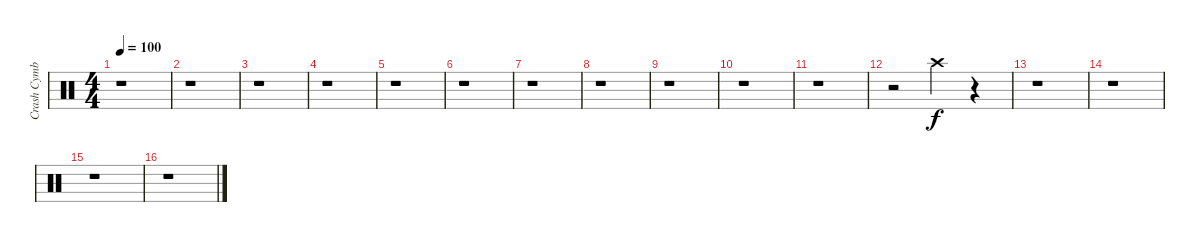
\track ("Crash Cymbal" "Crash Cymb") {instrument percussion}
\staff {score}
\articulation defaults
\ts (4 4)
\tempo 100
\clef neutral
\ks c
r.1{dy f} |
r.1 |
r.1 |
r.1 |
r.1 |
r.1 |
r.1 |
r.1 |
r.1 |
r.1 |
r.1 |
r.2 "Crash high (hit)".4 r.4 |
r.1 |
r.1 |
r.1 |
r.1
